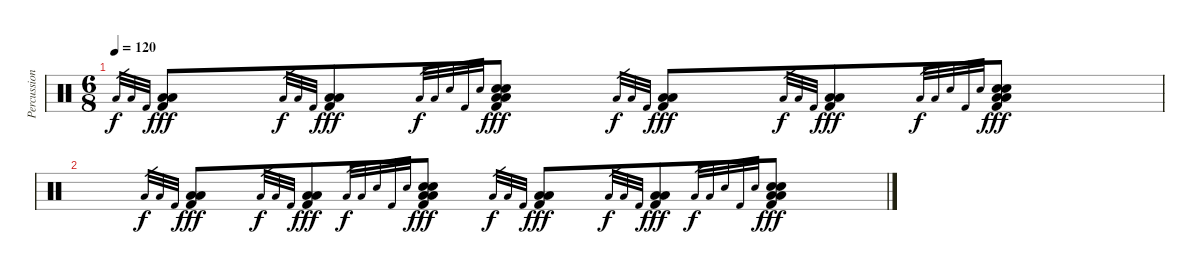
\track ("Percussion" "Percussion") {instrument percussion}
\staff {score}
\articulation defaults
\ts (6 8)
\tempo 120
\clef neutral
\ks c "Low Floor Tom (hit)".32{gr dy f} "Low Tom (hit)".32{gr} "Kick (hit) 2".32{gr}
("Low Floor Tom (hit)" "Low Tom (hit)" "Kick (hit) 2").8{dy fff} "Low Floor Tom (hit)".32{gr dy f} "Low Tom (hit)".32{gr} "Kick (hit) 2".32{gr} ("Low Floor Tom (hit)" "Low Tom (hit)" "Kick (hit) 2").8{dy fff} "Low Floor Tom (hit)".32{gr dy f} "Low Tom (hit)".32{gr} "Snare (hit) 2".32{gr} "Kick (hit) 2".32{gr} "Snare (hit) 2".32{gr} ("Low Floor Tom (hit)" "Low Tom (hit)" "Snare (hit) 2" "Kick (hit) 2" "Snare (hit) 2").8{dy fff} "Low Floor Tom (hit)".32{gr dy f} "Low Tom (hit)".32{gr} "Kick (hit) 2".32{gr} ("Low Floor Tom (hit)" "Low Tom (hit)" "Kick (hit) 2").8{dy fff} "Low Floor Tom (hit)".32{gr dy f} "Low Tom (hit)".32{gr} "Kick (hit) 2".32{gr} ("Low Floor Tom (hit)" "Low Tom (hit)" "Kick (hit) 2").8{dy fff} "Low Floor Tom (hit)".32{gr dy f} "Low Tom (hit)".32{gr} "Snare (hit) 2".32{gr} "Kick (hit) 2".32{gr} "Snare (hit) 2".32{gr} ("Low Floor Tom (hit)" "Low Tom (hit)" "Snare (hit) 2" "Kick (hit) 2" "Snare (hit) 2").8{dy fff} |
"Low Floor Tom (hit)".32{gr dy f} "Low Tom (hit)".32{gr} "Kick (hit) 2".32{gr} ("Low Floor Tom (hit)" "Low Tom (hit)" "Kick (hit) 2").8{dy fff} "Low Floor Tom (hit)".32{gr dy f} "Low Tom (hit)".32{gr} "Kick (hit) 2".32{gr} ("Low Floor Tom (hit)" "Low Tom (hit)" "Kick (hit) 2").8{dy fff} "Low Floor Tom (hit)".32{gr dy f} "Low Tom (hit)".32{gr} "Snare (hit) 2".32{gr} "Kick (hit) 2".32{gr} "Snare (hit) 2".32{gr} ("Low Floor Tom (hit)" "Low Tom (hit)" "Snare (hit) 2" "Kick (hit) 2" "Snare (hit) 2").8{dy fff} "Low Floor Tom (hit)".32{gr dy f} "Low Tom (hit)".32{gr} "Kick (hit) 2".32{gr} ("Low Floor Tom (hit)" "Low Tom (hit)" "Kick (hit) 2").8{dy fff} "Low Floor Tom (hit)".32{gr dy f} "Low Tom (hit)".32{gr} "Kick (hit) 2".32{gr} ("Low Floor Tom (hit)" "Low Tom (hit)" "Kick (hit) 2").8{dy fff} "Low Floor Tom (hit)".32{gr dy f} "Low Tom (hit)".32{gr} "Snare (hit) 2".32{gr} "Kick (hit) 2".32{gr} "Snare (hit) 2".32{gr} ("Low Floor Tom (hit)" "Low Tom (hit)" "Snare (hit) 2" "Kick (hit) 2" "Snare (hit) 2").8{dy fff}
